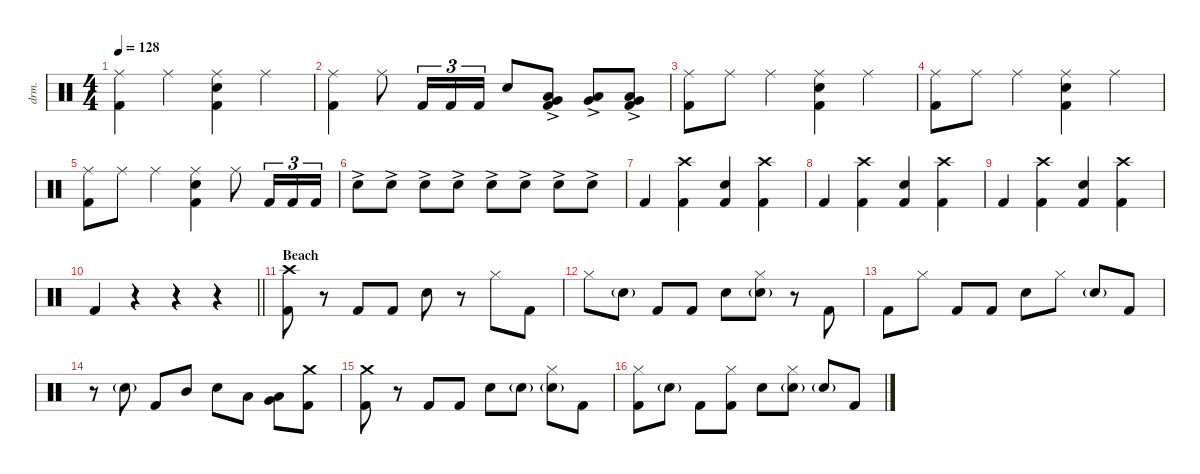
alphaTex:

\defaultSystemsLayout 4
\hideDynamics
\bracketExtendMode nobrackets
\otherSystemsTrackNameOrientation horizontal
\track ("Drums" "drm.") {instrument percussion}
\staff {score}
\articulation defaults
\ts (4 4)
\tempo 128
\clef neutral
\ks c
("Ride (middle)" "Kick (hit) 2").4{dy f beam Down} "Ride (middle)".4{beam Down} ("Ride (middle)" "Snare (hit) 2" "Kick (hit) 2").4{beam Down} "Ride (middle)".4{beam Down} |
("Ride (middle)" "Kick (hit) 2").4{beam Down} "Ride (middle)".8{beam Down} "Kick (hit) 2".16{tu (3 2) beam Up} "Kick (hit) 2".16{tu (3 2) beam Up} "Kick (hit) 2".16{tu (3 2) beam Up} "Snare (hit) 2".8{beam Up} ("Low Tom (hit)"{ac} "Very Low Tom (hit)"{ac} "Kick (hit) 2").8{beam Up} ("Low Tom (hit)"{ac} "Very Low Tom (hit)"{ac}).8{dy mf beam Up} ("Low Tom (hit)"{ac} "Very Low Tom (hit)"{ac} "Kick (hit) 2").8{dy f beam Up} |
("Ride (middle)" "Kick (hit) 2").8{beam Down} "Ride (middle)".8{beam Down} "Ride (middle)".4{beam Down} ("Ride (middle)" "Snare (hit) 2" "Kick (hit) 2").4{beam Down} "Ride (middle)".4{beam Down} |
("Ride (middle)" "Kick (hit) 2").8{beam Down} "Ride (middle)".8{beam Down} "Ride (middle)".4{beam Down} ("Ride (middle)" "Snare (hit) 2" "Kick (hit) 2").4{beam Down} "Ride (middle)".4{beam Down} |
("Ride (middle)" "Kick (hit) 2").8{beam Down} "Ride (middle)".8{beam Down} "Ride (middle)".4{beam Down} ("Ride (middle)" "Snare (hit) 2" "Kick (hit) 2").4{beam Down} "Ride (middle)".8{beam Down} "Kick (hit) 2".16{tu (3 2) beam Up} "Kick (hit) 2".16{tu (3 2) beam Up} "Kick (hit) 2".16{tu (3 2) beam Up} |
"Snare (hit) 2"{ac}.8{dy mf beam Down} "Snare (hit) 2"{ac}.8{beam Down} "Snare (hit) 2"{ac}.8{beam Down} "Snare (hit) 2"{ac}.8{beam Down} "Snare (hit) 2"{ac}.8{beam Down} "Snare (hit) 2"{ac}.8{beam Down} "Snare (hit) 2"{ac}.8{beam Down} "Snare (hit) 2"{ac}.8{beam Down} |
"Kick (hit) 2".4{dy f beam Up} ("Crash high (hit)" "Kick (hit) 2").4{beam Down} ("Snare (hit) 2" "Kick (hit) 2").4{beam Up} ("Crash high (hit)" "Kick (hit) 2").4{beam Down} |
"Kick (hit) 2".4{beam Up} ("Crash high (hit)" "Kick (hit) 2").4{beam Down} ("Snare (hit) 2" "Kick (hit) 2").4{beam Up} ("Crash high (hit)" "Kick (hit) 2").4{beam Down} |
"Kick (hit) 2".4{beam Up} ("Crash high (hit)" "Kick (hit) 2").4{beam Down} ("Snare (hit) 2" "Kick (hit) 2").4{beam Up} ("Crash high (hit)" "Kick (hit) 2").4{beam Down} |
\barLineRight lightlight "Kick (hit) 2".4{beam Up}
r.4{beam Up} r.4{beam Up} r.4{beam Up} |
\section ("" "Beach")
("Crash high (hit)" "Kick (hit) 2").8{beam Down} r.8{beam Down} "Kick (hit) 2".8{beam Up} "Kick (hit) 2".8{beam Up} "Snare (hit) 2".8{beam Down} r.8{beam Down} "Hi-Hat (closed)".8{beam Down} "Kick (hit) 2".8{beam Down} |
"Hi-Hat (closed)".8{beam Down} "Snare (hit) 2"{g}.8{beam Down} "Kick (hit) 2".8{beam Up} "Kick (hit) 2".8{beam Up} "Snare (hit) 2".8{beam Down} ("Hi-Hat (closed)" "Snare (hit) 2"{g}).8{beam Down} r.8{beam Down} "Kick (hit) 2".8{beam Up} |
"Kick (hit) 2".8{beam Down} "Hi-Hat (closed)".8{beam Down} "Kick (hit) 2".8{beam Up} "Kick (hit) 2".8{beam Up} "Snare (hit) 2".8{beam Down} "Hi-Hat (closed)".8{beam Down} "Snare (hit) 2"{g}.8{beam Up} "Kick (hit) 2".8{beam Up} |
r.8{beam Down} "Snare (hit) 2"{g}.8{beam Down} "Kick (hit) 2".8{beam Up} "Mid Tom (hit)".8{beam Up} "Snare (hit) 2".8{beam Down} "Low Tom (hit)".8{beam Down} ("Very Low Tom (hit)" "Low Tom (hit)").8{beam Down} ("Crash medium (hit)" "Kick (hit) 2").8{beam Down} |
("Crash medium (hit)" "Kick (hit) 2").8{beam Down} r.8{beam Down} "Kick (hit) 2".8{beam Up} "Kick (hit) 2".8{beam Up} "Snare (hit) 2".8{beam Down} "Snare (hit) 2"{g}.8{beam Down} ("Hi-Hat (closed)" "Snare (hit) 2"{g}).8{beam Down} "Kick (hit) 2".8{beam Down} |
("Hi-Hat (closed)" "Kick (hit) 2").8{beam Down} "Snare (hit) 2"{g}.8{beam Down} "Kick (hit) 2".8{beam Down} ("Hi-Hat (closed)" "Kick (hit) 2").8{beam Down} "Snare (hit) 2".8{beam Down} ("Hi-Hat (closed)" "Snare (hit) 2"{g}).8{beam Down} "Snare (hit) 2"{g}.8{beam Up} "Kick (hit) 2".8{beam Up}
